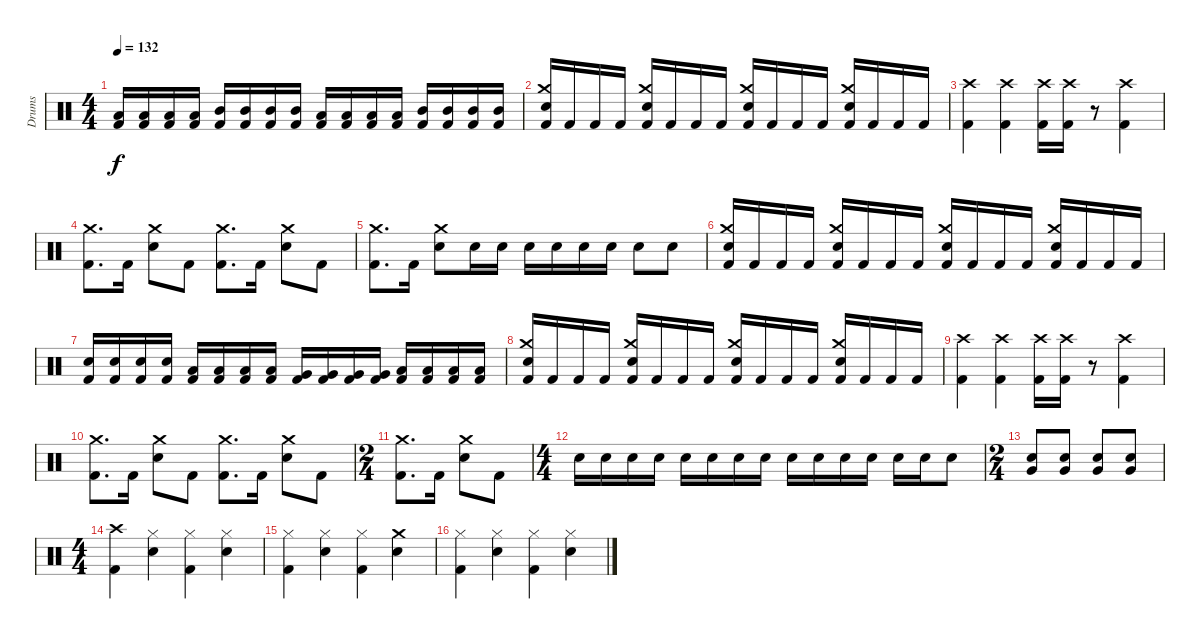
\track ("Drums" "Drums") {instrument percussion}
\staff {score}
\articulation defaults
\ts (4 4)
\tempo 132
\clef neutral
\ks c
("Low Tom (hit)" "Kick (hit) 2").16{dy f} ("Low Tom (hit)" "Kick (hit) 2").16 ("Low Tom (hit)" "Kick (hit) 2").16 ("Low Tom (hit)" "Kick (hit) 2").16 ("Mid Tom (hit)" "Kick (hit) 2").16 ("Mid Tom (hit)" "Kick (hit) 2").16 ("Mid Tom (hit)" "Kick (hit) 2").16 ("Mid Tom (hit)" "Kick (hit) 2").16 ("Low Tom (hit)" "Kick (hit) 2").16 ("Low Tom (hit)" "Kick (hit) 2").16 ("Low Tom (hit)" "Kick (hit) 2").16 ("Low Tom (hit)" "Kick (hit) 2").16 ("Mid Tom (hit)" "Kick (hit) 2").16 ("Mid Tom (hit)" "Kick (hit) 2").16 ("Mid Tom (hit)" "Kick (hit) 2").16 ("Mid Tom (hit)" "Kick (hit) 2").16 |
("Crash medium (hit)" "Snare (hit) 2" "Kick (hit) 2").16 "Kick (hit) 2".16 "Kick (hit) 2".16 "Kick (hit) 2".16 ("Crash medium (hit)" "Snare (hit) 2" "Kick (hit) 2").16 "Kick (hit) 2".16 "Kick (hit) 2".16 "Kick (hit) 2".16 ("Crash medium (hit)" "Snare (hit) 2" "Kick (hit) 2").16 "Kick (hit) 2".16 "Kick (hit) 2".16 "Kick (hit) 2".16 ("Crash medium (hit)" "Snare (hit) 2" "Kick (hit) 2").16 "Kick (hit) 2".16 "Kick (hit) 2".16 "Kick (hit) 2".16 |
("Crash high (hit)" "Kick (hit) 2").4 ("Crash high (hit)" "Kick (hit) 2").4 ("Crash high (hit)" "Kick (hit) 2").16 ("Crash high (hit)" "Kick (hit) 2").16 r.8 ("Crash high (hit)" "Kick (hit) 2").4 |
("Crash medium (hit)" "Kick (hit) 2").8{d} "Kick (hit) 2".16 ("Crash medium (hit)" "Snare (hit) 2").8 "Kick (hit) 2".8 ("Crash medium (hit)" "Kick (hit) 2").8{d} "Kick (hit) 2".16 ("Crash medium (hit)" "Snare (hit) 2").8 "Kick (hit) 2".8 |
("Crash medium (hit)" "Kick (hit) 2").8{d} "Kick (hit) 2".16 ("Crash medium (hit)" "Snare (hit) 2").8 "Snare (hit) 2".16 "Snare (hit) 2".16 "Snare (hit) 2".16 "Snare (hit) 2".16 "Snare (hit) 2".16 "Snare (hit) 2".16 "Snare (hit) 2".8 "Snare (hit) 2".8 |
("Crash medium (hit)" "Snare (hit) 2" "Kick (hit) 2").16 "Kick (hit) 2".16 "Kick (hit) 2".16 "Kick (hit) 2".16 ("Crash medium (hit)" "Snare (hit) 2" "Kick (hit) 2").16 "Kick (hit) 2".16 "Kick (hit) 2".16 "Kick (hit) 2".16 ("Crash medium (hit)" "Snare (hit) 2" "Kick (hit) 2").16 "Kick (hit) 2".16 "Kick (hit) 2".16 "Kick (hit) 2".16 ("Crash medium (hit)" "Snare (hit) 2" "Kick (hit) 2").16 "Kick (hit) 2".16 "Kick (hit) 2".16 "Kick (hit) 2".16 |
("Snare (hit) 2" "Kick (hit) 2").16 ("Snare (hit) 2" "Kick (hit) 2").16 ("Snare (hit) 2" "Kick (hit) 2").16 ("Snare (hit) 2" "Kick (hit) 2").16 ("Low Tom (hit)" "Kick (hit) 2").16 ("Low Tom (hit)" "Kick (hit) 2").16 ("Low Tom (hit)" "Kick (hit) 2").16 ("Low Tom (hit)" "Kick (hit) 2").16 ("Very Low Tom (hit)" "Kick (hit) 2").16 ("Very Low Tom (hit)" "Kick (hit) 2").16 ("Very Low Tom (hit)" "Kick (hit) 2").16 ("Very Low Tom (hit)" "Kick (hit) 2").16 ("Low Floor Tom (hit)" "Kick (hit) 2").16 ("Low Floor Tom (hit)" "Kick (hit) 2").16 ("Low Floor Tom (hit)" "Kick (hit) 2").16 ("Low Floor Tom (hit)" "Kick (hit) 2").16 |
("Crash medium (hit)" "Snare (hit) 2" "Kick (hit) 2").16 "Kick (hit) 2".16 "Kick (hit) 2".16 "Kick (hit) 2".16 ("Crash medium (hit)" "Snare (hit) 2" "Kick (hit) 2").16 "Kick (hit) 2".16 "Kick (hit) 2".16 "Kick (hit) 2".16 ("Crash medium (hit)" "Snare (hit) 2" "Kick (hit) 2").16 "Kick (hit) 2".16 "Kick (hit) 2".16 "Kick (hit) 2".16 ("Crash medium (hit)" "Snare (hit) 2" "Kick (hit) 2").16 "Kick (hit) 2".16 "Kick (hit) 2".16 "Kick (hit) 2".16 |
("Crash high (hit)" "Kick (hit) 2").4 ("Crash high (hit)" "Kick (hit) 2").4 ("Crash high (hit)" "Kick (hit) 2").16 ("Crash high (hit)" "Kick (hit) 2").16 r.8 ("Crash high (hit)" "Kick (hit) 2").4 |
("Crash medium (hit)" "Kick (hit) 2").8{d} "Kick (hit) 2".16 ("Crash medium (hit)" "Snare (hit) 2").8 "Kick (hit) 2".8 ("Crash medium (hit)" "Kick (hit) 2").8{d} "Kick (hit) 2".16 ("Crash medium (hit)" "Snare (hit) 2").8 "Kick (hit) 2".8 |
\ts (2 4)
("Crash medium (hit)" "Kick (hit) 2").8{d} "Kick (hit) 2".16 ("Crash medium (hit)" "Snare (hit) 2").8 "Kick (hit) 2".8 |
\ts (4 4)
"Snare (hit) 2".16 "Snare (hit) 2".16 "Snare (hit) 2".16 "Snare (hit) 2".16 "Snare (hit) 2".16 "Snare (hit) 2".16 "Snare (hit) 2".16 "Snare (hit) 2".16 "Snare (hit) 2".16 "Snare (hit) 2".16 "Snare (hit) 2".16 "Snare (hit) 2".16 "Snare (hit) 2".16 "Snare (hit) 2".16 "Snare (hit) 2".8 |
\ts (2 4)
("Very Low Tom (hit)" "Snare (hit) 2").8 ("Very Low Tom (hit)" "Snare (hit) 2").8 ("Very Low Tom (hit)" "Snare (hit) 2").8 ("Very Low Tom (hit)" "Snare (hit) 2").8 |
\ts (4 4)
("Crash high (hit)" "Kick (hit) 2").4 ("Hi-Hat (closed)" "Snare (hit) 2").4 ("Hi-Hat (closed)" "Kick (hit) 2").4 ("Hi-Hat (closed)" "Snare (hit) 2").4 |
("Hi-Hat (closed)" "Kick (hit) 2").4 ("Hi-Hat (closed)" "Snare (hit) 2").4 ("Hi-Hat (closed)" "Kick (hit) 2").4 ("Crash medium (hit)" "Snare (hit) 2").4 |
("Hi-Hat (closed)" "Kick (hit) 2").4 ("Hi-Hat (closed)" "Snare (hit) 2").4 ("Hi-Hat (closed)" "Kick (hit) 2").4 ("Hi-Hat (closed)" "Snare (hit) 2").4
